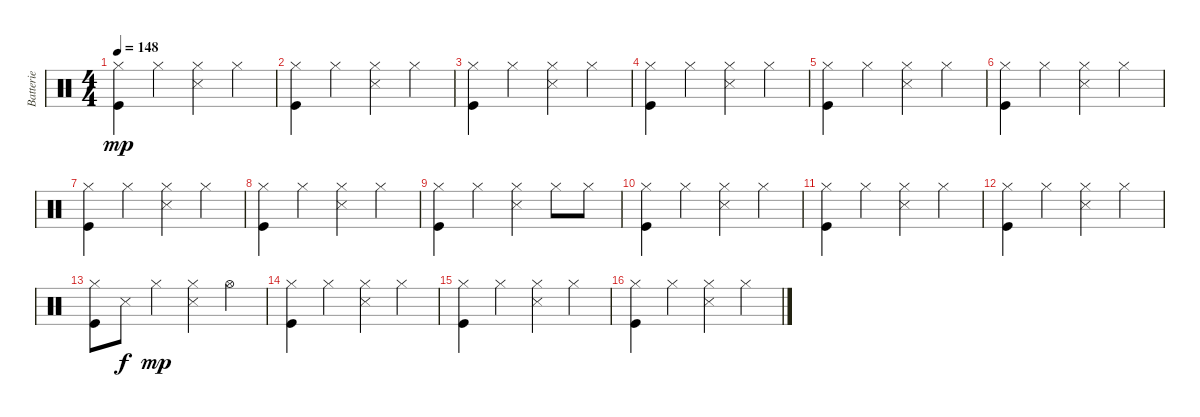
\track ("Batterie" "Batterie") {instrument percussion}
\staff {score}
\articulation defaults
\ts (4 4)
\tempo 148
\clef neutral
\ks c
("Hi-Hat (closed)" "Kick (hit)").4{dy mp} "Hi-Hat (closed)".4 ("Hi-Hat (closed)" "Metronome (hit)").4 "Hi-Hat (closed)".4 |
("Hi-Hat (closed)" "Kick (hit)").4 "Hi-Hat (closed)".4 ("Hi-Hat (closed)" "Metronome (hit)").4 "Hi-Hat (closed)".4 |
("Hi-Hat (closed)" "Kick (hit)").4 "Hi-Hat (closed)".4 ("Hi-Hat (closed)" "Metronome (hit)").4 "Hi-Hat (closed)".4 |
("Hi-Hat (closed)" "Kick (hit)").4 "Hi-Hat (closed)".4 ("Hi-Hat (closed)" "Metronome (hit)").4 "Hi-Hat (closed)".4 |
("Hi-Hat (closed)" "Kick (hit)").4 "Hi-Hat (closed)".4 ("Hi-Hat (closed)" "Metronome (hit)").4 "Hi-Hat (closed)".4 |
("Hi-Hat (closed)" "Kick (hit)").4 "Hi-Hat (closed)".4 ("Hi-Hat (closed)" "Metronome (hit)").4 "Hi-Hat (closed)".4 |
("Hi-Hat (closed)" "Kick (hit)").4 "Hi-Hat (closed)".4 ("Hi-Hat (closed)" "Metronome (hit)").4 "Hi-Hat (closed)".4 |
("Hi-Hat (closed)" "Kick (hit)").4 "Hi-Hat (closed)".4 ("Hi-Hat (closed)" "Metronome (hit)").4 "Hi-Hat (closed)".4 |
("Hi-Hat (closed)" "Kick (hit)").4 "Hi-Hat (closed)".4 ("Hi-Hat (closed)" "Metronome (hit)").4 "Hi-Hat (closed)".8 "Hi-Hat (closed)".8 |
("Hi-Hat (closed)" "Kick (hit)").4 "Hi-Hat (closed)".4 ("Hi-Hat (closed)" "Metronome (hit)").4 "Hi-Hat (closed)".4 |
("Hi-Hat (closed)" "Kick (hit)").4 "Hi-Hat (closed)".4 ("Hi-Hat (closed)" "Metronome (hit)").4 "Hi-Hat (closed)".4 |
("Hi-Hat (closed)" "Kick (hit)").4 "Hi-Hat (closed)".4 ("Hi-Hat (closed)" "Metronome (hit)").4 "Hi-Hat (closed)".4 |
("Hi-Hat (closed)" "Kick (hit)").8 "Metronome (hit)".8{dy f} "Hi-Hat (closed)".4{dy mp} ("Hi-Hat (closed)" "Metronome (hit)").4 "Hi-Hat (open)".4 |
("Hi-Hat (closed)" "Kick (hit)").4 "Hi-Hat (closed)".4 ("Hi-Hat (closed)" "Metronome (hit)").4 "Hi-Hat (closed)".4 |
("Hi-Hat (closed)" "Kick (hit)").4 "Hi-Hat (closed)".4 ("Hi-Hat (closed)" "Metronome (hit)").4 "Hi-Hat (closed)".4 |
("Hi-Hat (closed)" "Kick (hit)").4 "Hi-Hat (closed)".4 ("Hi-Hat (closed)" "Metronome (hit)").4 "Hi-Hat (closed)".4
